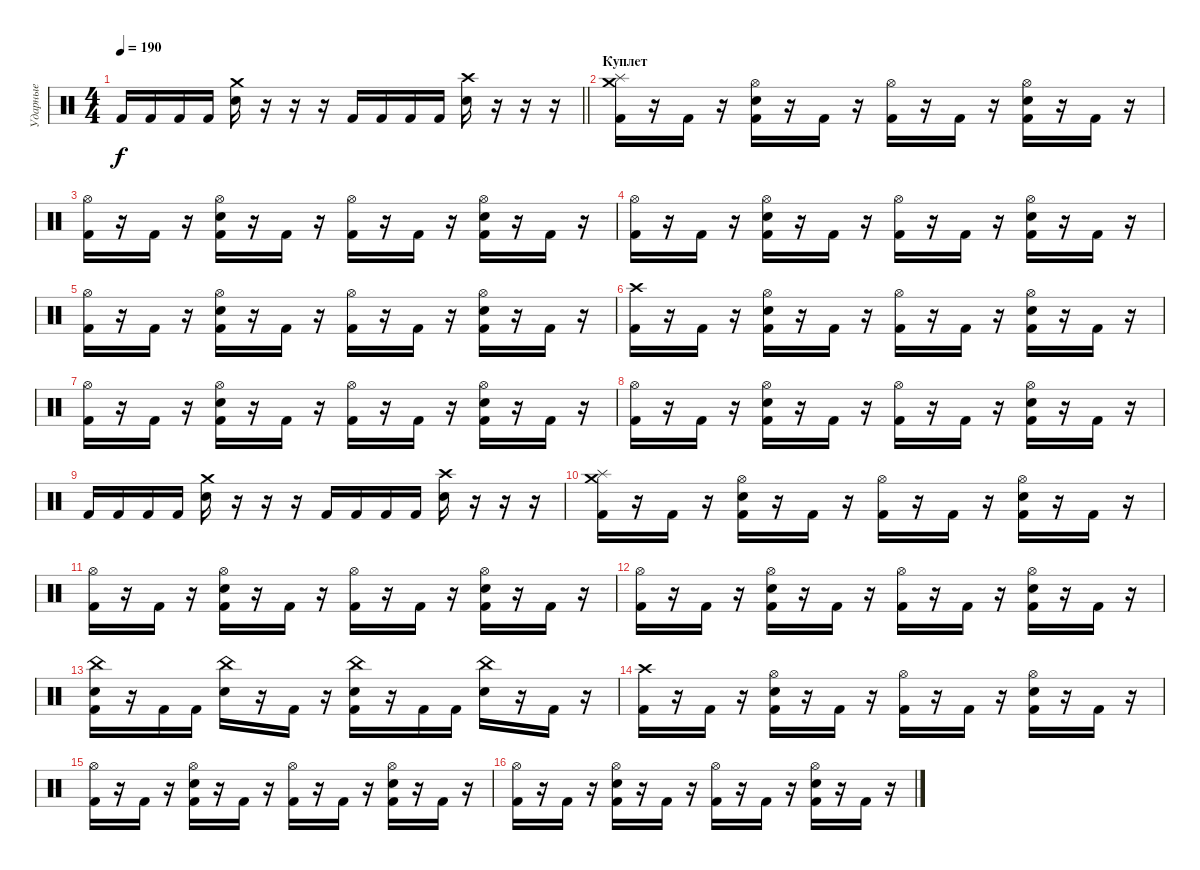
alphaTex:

\track ("Ударные" "Ударные") {instrument percussion}
\staff {score}
\articulation defaults
\ts (4 4)
\tempo 190
\clef neutral
\barLineRight lightlight
\ks c "Kick (hit) 2".16{dy f} "Kick (hit) 2".16 "Kick (hit) 2".16 "Kick (hit) 2".16
("Electric Snare (hit)" "Crash medium (hit)").16 r.16 r.16 r.16 "Kick (hit) 2".16 "Kick (hit) 2".16 "Kick (hit) 2".16 "Kick (hit) 2".16 ("Electric Snare (hit)" "Crash high (hit)").16 r.16 r.16 r.16 |
\section ("" "Куплет")
("Kick (hit) 2" "Splash (hit)" "Crash medium (hit)").16 r.16 "Kick (hit) 2".16 r.16 ("Kick (hit) 2" "Electric Snare (hit)" "Hi-Hat (open)").16 r.16 "Kick (hit) 2".16 r.16 ("Kick (hit) 2" "Hi-Hat (open)").16 r.16 "Kick (hit) 2".16 r.16 ("Kick (hit) 2" "Electric Snare (hit)" "Hi-Hat (open)").16 r.16 "Kick (hit) 2".16 r.16 |
("Kick (hit) 2" "Hi-Hat (open)").16 r.16 "Kick (hit) 2".16 r.16 ("Kick (hit) 2" "Electric Snare (hit)" "Hi-Hat (open)").16 r.16 "Kick (hit) 2".16 r.16 ("Kick (hit) 2" "Hi-Hat (open)").16 r.16 "Kick (hit) 2".16 r.16 ("Kick (hit) 2" "Electric Snare (hit)" "Hi-Hat (open)").16 r.16 "Kick (hit) 2".16 r.16 |
("Kick (hit) 2" "Hi-Hat (open)").16 r.16 "Kick (hit) 2".16 r.16 ("Kick (hit) 2" "Electric Snare (hit)" "Hi-Hat (open)").16 r.16 "Kick (hit) 2".16 r.16 ("Kick (hit) 2" "Hi-Hat (open)").16 r.16 "Kick (hit) 2".16 r.16 ("Kick (hit) 2" "Electric Snare (hit)" "Hi-Hat (open)").16 r.16 "Kick (hit) 2".16 r.16 |
("Kick (hit) 2" "Hi-Hat (open)").16 r.16 "Kick (hit) 2".16 r.16 ("Kick (hit) 2" "Electric Snare (hit)" "Hi-Hat (open)").16 r.16 "Kick (hit) 2".16 r.16 ("Kick (hit) 2" "Hi-Hat (open)").16 r.16 "Kick (hit) 2".16 r.16 ("Kick (hit) 2" "Electric Snare (hit)" "Hi-Hat (open)").16 r.16 "Kick (hit) 2".16 r.16 |
("Kick (hit) 2" "Crash high (hit)").16 r.16 "Kick (hit) 2".16 r.16 ("Kick (hit) 2" "Electric Snare (hit)" "Hi-Hat (open)").16 r.16 "Kick (hit) 2".16 r.16 ("Kick (hit) 2" "Hi-Hat (open)").16 r.16 "Kick (hit) 2".16 r.16 ("Kick (hit) 2" "Electric Snare (hit)" "Hi-Hat (open)").16 r.16 "Kick (hit) 2".16 r.16 |
("Kick (hit) 2" "Hi-Hat (open)").16 r.16 "Kick (hit) 2".16 r.16 ("Kick (hit) 2" "Electric Snare (hit)" "Hi-Hat (open)").16 r.16 "Kick (hit) 2".16 r.16 ("Kick (hit) 2" "Hi-Hat (open)").16 r.16 "Kick (hit) 2".16 r.16 ("Kick (hit) 2" "Electric Snare (hit)" "Hi-Hat (open)").16 r.16 "Kick (hit) 2".16 r.16 |
("Kick (hit) 2" "Hi-Hat (open)").16 r.16 "Kick (hit) 2".16 r.16 ("Kick (hit) 2" "Electric Snare (hit)" "Hi-Hat (open)").16 r.16 "Kick (hit) 2".16 r.16 ("Kick (hit) 2" "Hi-Hat (open)").16 r.16 "Kick (hit) 2".16 r.16 ("Kick (hit) 2" "Electric Snare (hit)" "Hi-Hat (open)").16 r.16 "Kick (hit) 2".16 r.16 |
"Kick (hit) 2".16 "Kick (hit) 2".16 "Kick (hit) 2".16 "Kick (hit) 2".16 ("Electric Snare (hit)" "Crash medium (hit)").16 r.16 r.16 r.16 "Kick (hit) 2".16 "Kick (hit) 2".16 "Kick (hit) 2".16 "Kick (hit) 2".16 ("Electric Snare (hit)" "Crash high (hit)").16 r.16 r.16 r.16 |
("Kick (hit) 2" "Splash (hit)" "Crash medium (hit)").16 r.16 "Kick (hit) 2".16 r.16 ("Kick (hit) 2" "Electric Snare (hit)" "Hi-Hat (open)").16 r.16 "Kick (hit) 2".16 r.16 ("Kick (hit) 2" "Hi-Hat (open)").16 r.16 "Kick (hit) 2".16 r.16 ("Kick (hit) 2" "Electric Snare (hit)" "Hi-Hat (open)").16 r.16 "Kick (hit) 2".16 r.16 |
("Kick (hit) 2" "Hi-Hat (open)").16 r.16 "Kick (hit) 2".16 r.16 ("Kick (hit) 2" "Electric Snare (hit)" "Hi-Hat (open)").16 r.16 "Kick (hit) 2".16 r.16 ("Kick (hit) 2" "Hi-Hat (open)").16 r.16 "Kick (hit) 2".16 r.16 ("Kick (hit) 2" "Electric Snare (hit)" "Hi-Hat (open)").16 r.16 "Kick (hit) 2".16 r.16 |
("Kick (hit) 2" "Hi-Hat (open)").16 r.16 "Kick (hit) 2".16 r.16 ("Kick (hit) 2" "Electric Snare (hit)" "Hi-Hat (open)").16 r.16 "Kick (hit) 2".16 r.16 ("Kick (hit) 2" "Hi-Hat (open)").16 r.16 "Kick (hit) 2".16 r.16 ("Kick (hit) 2" "Electric Snare (hit)" "Hi-Hat (open)").16 r.16 "Kick (hit) 2".16 r.16 |
("Kick (hit) 2" "Electric Snare (hit)" "China (hit)").16 r.16 "Kick (hit) 2".16 "Kick (hit) 2".16 ("Electric Snare (hit)" "China (hit)").16 r.16 "Kick (hit) 2".16 r.16 ("Kick (hit) 2" "Electric Snare (hit)" "China (hit)").16 r.16 "Kick (hit) 2".16 "Kick (hit) 2".16 ("Electric Snare (hit)" "China (hit)").16 r.16 "Kick (hit) 2".16 r.16 |
("Kick (hit) 2" "Crash high (hit)").16 r.16 "Kick (hit) 2".16 r.16 ("Kick (hit) 2" "Electric Snare (hit)" "Hi-Hat (open)").16 r.16 "Kick (hit) 2".16 r.16 ("Kick (hit) 2" "Hi-Hat (open)").16 r.16 "Kick (hit) 2".16 r.16 ("Kick (hit) 2" "Electric Snare (hit)" "Hi-Hat (open)").16 r.16 "Kick (hit) 2".16 r.16 |
("Kick (hit) 2" "Hi-Hat (open)").16 r.16 "Kick (hit) 2".16 r.16 ("Kick (hit) 2" "Electric Snare (hit)" "Hi-Hat (open)").16 r.16 "Kick (hit) 2".16 r.16 ("Kick (hit) 2" "Hi-Hat (open)").16 r.16 "Kick (hit) 2".16 r.16 ("Kick (hit) 2" "Electric Snare (hit)" "Hi-Hat (open)").16 r.16 "Kick (hit) 2".16 r.16 |
("Kick (hit) 2" "Hi-Hat (open)").16 r.16 "Kick (hit) 2".16 r.16 ("Kick (hit) 2" "Electric Snare (hit)" "Hi-Hat (open)").16 r.16 "Kick (hit) 2".16 r.16 ("Kick (hit) 2" "Hi-Hat (open)").16 r.16 "Kick (hit) 2".16 r.16 ("Kick (hit) 2" "Electric Snare (hit)" "Hi-Hat (open)").16 r.16 "Kick (hit) 2".16 r.16
